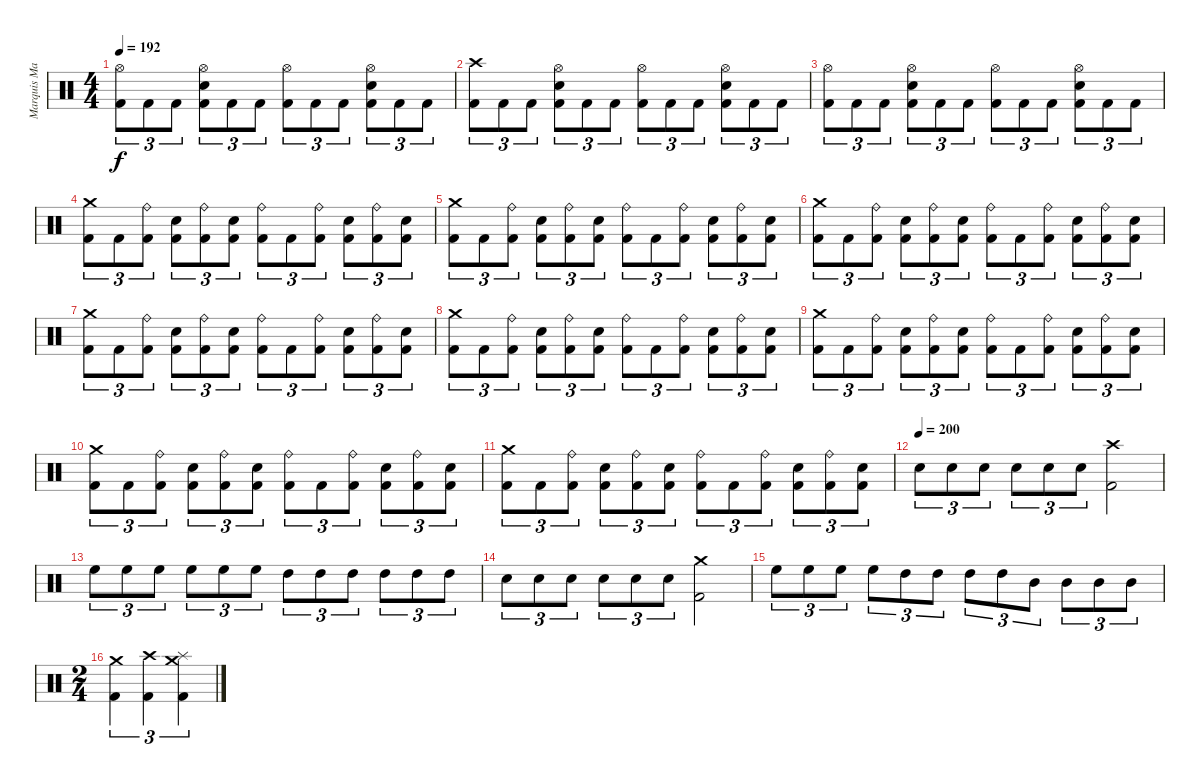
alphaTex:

\track ("Marquis Marky (DRUMS)" "Marquis Ma") {instrument percussion}
\staff {score}
\articulation defaults
\ts (4 4)
\tempo 192
\clef neutral
\ks c
("Hi-Hat (open)" "Kick (hit) 2").8{tu (3 2) dy f} "Kick (hit) 2".8{tu (3 2)} "Kick (hit) 2".8{tu (3 2)} ("Hi-Hat (open)" "Snare (hit) 2" "Kick (hit) 2").8{tu (3 2)} "Kick (hit) 2".8{tu (3 2)} "Kick (hit) 2".8{tu (3 2)} ("Hi-Hat (open)" "Kick (hit) 2").8{tu (3 2)} "Kick (hit) 2".8{tu (3 2)} "Kick (hit) 2".8{tu (3 2)} ("Hi-Hat (open)" "Snare (hit) 2" "Kick (hit) 2").8{tu (3 2)} "Kick (hit) 2".8{tu (3 2)} "Kick (hit) 2".8{tu (3 2)} |
("Crash high (hit)" "Kick (hit) 2").8{tu (3 2)} "Kick (hit) 2".8{tu (3 2)} "Kick (hit) 2".8{tu (3 2)} ("Hi-Hat (open)" "Snare (hit) 2" "Kick (hit) 2").8{tu (3 2)} "Kick (hit) 2".8{tu (3 2)} "Kick (hit) 2".8{tu (3 2)} ("Hi-Hat (open)" "Kick (hit) 2").8{tu (3 2)} "Kick (hit) 2".8{tu (3 2)} "Kick (hit) 2".8{tu (3 2)} ("Hi-Hat (open)" "Snare (hit) 2" "Kick (hit) 2").8{tu (3 2)} "Kick (hit) 2".8{tu (3 2)} "Kick (hit) 2".8{tu (3 2)} |
("Hi-Hat (open)" "Kick (hit) 2").8{tu (3 2)} "Kick (hit) 2".8{tu (3 2)} "Kick (hit) 2".8{tu (3 2)} ("Hi-Hat (open)" "Snare (hit) 2" "Kick (hit) 2").8{tu (3 2)} "Kick (hit) 2".8{tu (3 2)} "Kick (hit) 2".8{tu (3 2)} ("Hi-Hat (open)" "Kick (hit) 2").8{tu (3 2)} "Kick (hit) 2".8{tu (3 2)} "Kick (hit) 2".8{tu (3 2)} ("Hi-Hat (open)" "Snare (hit) 2" "Kick (hit) 2").8{tu (3 2)} "Kick (hit) 2".8{tu (3 2)} "Kick (hit) 2".8{tu (3 2)} |
("Crash medium (hit)" "Kick (hit) 2").8{tu (3 2)} "Kick (hit) 2".8{tu (3 2)} ("Ride (bell)" "Kick (hit) 2").8{tu (3 2)} ("Snare (hit) 2" "Kick (hit) 2").8{tu (3 2)} ("Ride (bell)" "Kick (hit) 2").8{tu (3 2)} ("Snare (hit) 2" "Kick (hit) 2").8{tu (3 2)} ("Ride (bell)" "Kick (hit) 2").8{tu (3 2)} "Kick (hit) 2".8{tu (3 2)} ("Ride (bell)" "Kick (hit) 2").8{tu (3 2)} ("Snare (hit) 2" "Kick (hit) 2").8{tu (3 2)} ("Ride (bell)" "Kick (hit) 2").8{tu (3 2)} ("Snare (hit) 2" "Kick (hit) 2").8{tu (3 2)} |
("Crash medium (hit)" "Kick (hit) 2").8{tu (3 2)} "Kick (hit) 2".8{tu (3 2)} ("Ride (bell)" "Kick (hit) 2").8{tu (3 2)} ("Snare (hit) 2" "Kick (hit) 2").8{tu (3 2)} ("Ride (bell)" "Kick (hit) 2").8{tu (3 2)} ("Snare (hit) 2" "Kick (hit) 2").8{tu (3 2)} ("Ride (bell)" "Kick (hit) 2").8{tu (3 2)} "Kick (hit) 2".8{tu (3 2)} ("Ride (bell)" "Kick (hit) 2").8{tu (3 2)} ("Snare (hit) 2" "Kick (hit) 2").8{tu (3 2)} ("Ride (bell)" "Kick (hit) 2").8{tu (3 2)} ("Snare (hit) 2" "Kick (hit) 2").8{tu (3 2)} |
("Crash medium (hit)" "Kick (hit) 2").8{tu (3 2)} "Kick (hit) 2".8{tu (3 2)} ("Ride (bell)" "Kick (hit) 2").8{tu (3 2)} ("Snare (hit) 2" "Kick (hit) 2").8{tu (3 2)} ("Ride (bell)" "Kick (hit) 2").8{tu (3 2)} ("Snare (hit) 2" "Kick (hit) 2").8{tu (3 2)} ("Ride (bell)" "Kick (hit) 2").8{tu (3 2)} "Kick (hit) 2".8{tu (3 2)} ("Ride (bell)" "Kick (hit) 2").8{tu (3 2)} ("Snare (hit) 2" "Kick (hit) 2").8{tu (3 2)} ("Ride (bell)" "Kick (hit) 2").8{tu (3 2)} ("Snare (hit) 2" "Kick (hit) 2").8{tu (3 2)} |
("Crash medium (hit)" "Kick (hit) 2").8{tu (3 2)} "Kick (hit) 2".8{tu (3 2)} ("Ride (bell)" "Kick (hit) 2").8{tu (3 2)} ("Snare (hit) 2" "Kick (hit) 2").8{tu (3 2)} ("Ride (bell)" "Kick (hit) 2").8{tu (3 2)} ("Snare (hit) 2" "Kick (hit) 2").8{tu (3 2)} ("Ride (bell)" "Kick (hit) 2").8{tu (3 2)} "Kick (hit) 2".8{tu (3 2)} ("Ride (bell)" "Kick (hit) 2").8{tu (3 2)} ("Snare (hit) 2" "Kick (hit) 2").8{tu (3 2)} ("Ride (bell)" "Kick (hit) 2").8{tu (3 2)} ("Snare (hit) 2" "Kick (hit) 2").8{tu (3 2)} |
("Crash medium (hit)" "Kick (hit) 2").8{tu (3 2)} "Kick (hit) 2".8{tu (3 2)} ("Ride (bell)" "Kick (hit) 2").8{tu (3 2)} ("Snare (hit) 2" "Kick (hit) 2").8{tu (3 2)} ("Ride (bell)" "Kick (hit) 2").8{tu (3 2)} ("Snare (hit) 2" "Kick (hit) 2").8{tu (3 2)} ("Ride (bell)" "Kick (hit) 2").8{tu (3 2)} "Kick (hit) 2".8{tu (3 2)} ("Ride (bell)" "Kick (hit) 2").8{tu (3 2)} ("Snare (hit) 2" "Kick (hit) 2").8{tu (3 2)} ("Ride (bell)" "Kick (hit) 2").8{tu (3 2)} ("Snare (hit) 2" "Kick (hit) 2").8{tu (3 2)} |
("Crash medium (hit)" "Kick (hit) 2").8{tu (3 2)} "Kick (hit) 2".8{tu (3 2)} ("Ride (bell)" "Kick (hit) 2").8{tu (3 2)} ("Snare (hit) 2" "Kick (hit) 2").8{tu (3 2)} ("Ride (bell)" "Kick (hit) 2").8{tu (3 2)} ("Snare (hit) 2" "Kick (hit) 2").8{tu (3 2)} ("Ride (bell)" "Kick (hit) 2").8{tu (3 2)} "Kick (hit) 2".8{tu (3 2)} ("Ride (bell)" "Kick (hit) 2").8{tu (3 2)} ("Snare (hit) 2" "Kick (hit) 2").8{tu (3 2)} ("Ride (bell)" "Kick (hit) 2").8{tu (3 2)} ("Snare (hit) 2" "Kick (hit) 2").8{tu (3 2)} |
("Crash medium (hit)" "Kick (hit) 2").8{tu (3 2)} "Kick (hit) 2".8{tu (3 2)} ("Ride (bell)" "Kick (hit) 2").8{tu (3 2)} ("Snare (hit) 2" "Kick (hit) 2").8{tu (3 2)} ("Ride (bell)" "Kick (hit) 2").8{tu (3 2)} ("Snare (hit) 2" "Kick (hit) 2").8{tu (3 2)} ("Ride (bell)" "Kick (hit) 2").8{tu (3 2)} "Kick (hit) 2".8{tu (3 2)} ("Ride (bell)" "Kick (hit) 2").8{tu (3 2)} ("Snare (hit) 2" "Kick (hit) 2").8{tu (3 2)} ("Ride (bell)" "Kick (hit) 2").8{tu (3 2)} ("Snare (hit) 2" "Kick (hit) 2").8{tu (3 2)} |
("Crash medium (hit)" "Kick (hit) 2").8{tu (3 2)} "Kick (hit) 2".8{tu (3 2)} ("Ride (bell)" "Kick (hit) 2").8{tu (3 2)} ("Snare (hit) 2" "Kick (hit) 2").8{tu (3 2)} ("Ride (bell)" "Kick (hit) 2").8{tu (3 2)} ("Snare (hit) 2" "Kick (hit) 2").8{tu (3 2)} ("Ride (bell)" "Kick (hit) 2").8{tu (3 2)} "Kick (hit) 2".8{tu (3 2)} ("Ride (bell)" "Kick (hit) 2").8{tu (3 2)} ("Snare (hit) 2" "Kick (hit) 2").8{tu (3 2)} ("Ride (bell)" "Kick (hit) 2").8{tu (3 2)} ("Snare (hit) 2" "Kick (hit) 2").8{tu (3 2)} |
\tempo (200)
"Snare (hit) 2".8{tu (3 2)} "Snare (hit) 2".8{tu (3 2)} "Snare (hit) 2".8{tu (3 2)} "Snare (hit) 2".8{tu (3 2)} "Snare (hit) 2".8{tu (3 2)} "Snare (hit) 2".8{tu (3 2)} ("Crash high (hit)" "Kick (hit) 2").2 |
"High Floor Tom (hit)".8{tu (3 2)} "High Floor Tom (hit)".8{tu (3 2)} "High Floor Tom (hit)".8{tu (3 2)} "High Floor Tom (hit)".8{tu (3 2)} "High Floor Tom (hit)".8{tu (3 2)} "High Floor Tom (hit)".8{tu (3 2)} "High Tom (hit)".8{tu (3 2)} "High Tom (hit)".8{tu (3 2)} "High Tom (hit)".8{tu (3 2)} "High Tom (hit)".8{tu (3 2)} "High Tom (hit)".8{tu (3 2)} "High Tom (hit)".8{tu (3 2)} |
"Snare (hit) 2".8{tu (3 2)} "Snare (hit) 2".8{tu (3 2)} "Snare (hit) 2".8{tu (3 2)} "Snare (hit) 2".8{tu (3 2)} "Snare (hit) 2".8{tu (3 2)} "Snare (hit) 2".8{tu (3 2)} ("Crash medium (hit)" "Kick (hit) 2").2 |
"High Floor Tom (hit)".8{tu (3 2)} "High Floor Tom (hit)".8{tu (3 2)} "High Floor Tom (hit)".8{tu (3 2)} "High Floor Tom (hit)".8{tu (3 2)} "High Tom (hit)".8{tu (3 2)} "High Tom (hit)".8{tu (3 2)} "High Tom (hit)".8{tu (3 2)} "High Tom (hit)".8{tu (3 2)} "Mid Tom (hit)".8{tu (3 2)} "Mid Tom (hit)".8{tu (3 2)} "Mid Tom (hit)".8{tu (3 2)} "Mid Tom (hit)".8{tu (3 2)} |
\ts (2 4)
("Crash medium (hit)" "Kick (hit) 2").4{tu (3 2)} ("Crash high (hit)" "Kick (hit) 2").4{tu (3 2)} ("Crash medium (hit)" "Splash (hit)" "Kick (hit) 2").4{tu (3 2)}
